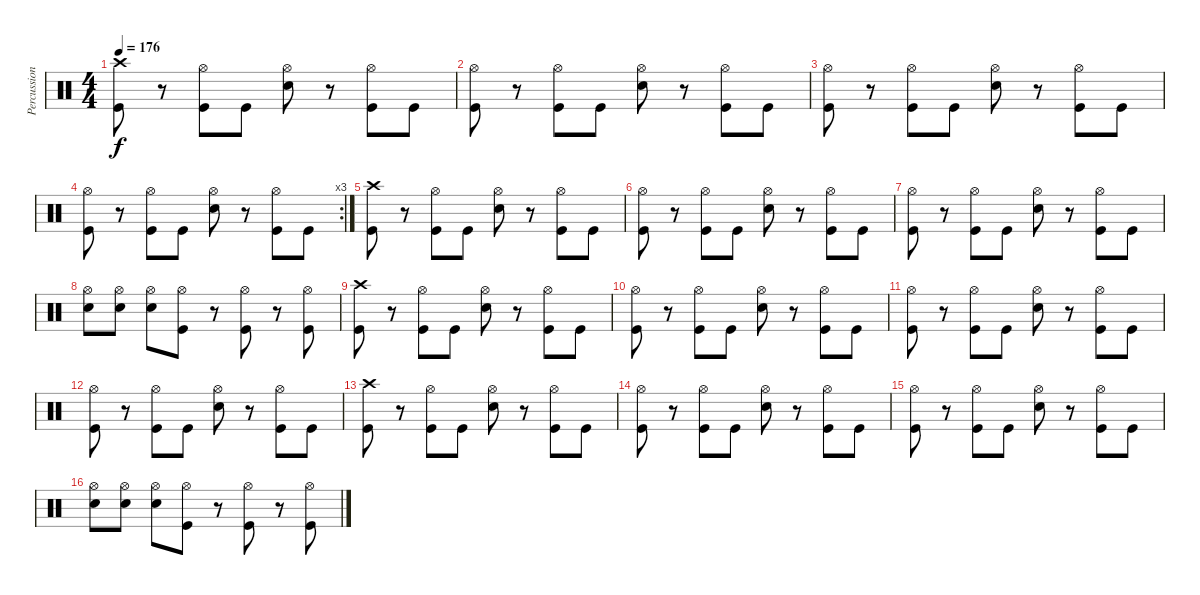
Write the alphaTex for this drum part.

\track ("Percussion" "Percussion") {instrument percussion}
\staff {score}
\articulation defaults
\ts (4 4)
\tempo 176
\clef neutral
\ks c
("Crash high (hit)" "Kick (hit)").8{dy f} r.8 ("Hi-Hat (open)" "Kick (hit)").8 "Kick (hit)".8 ("Hi-Hat (open)" "Snare (hit) 2").8 r.8 ("Hi-Hat (open)" "Kick (hit)").8 "Kick (hit)".8 |
("Hi-Hat (open)" "Kick (hit)").8 r.8 ("Hi-Hat (open)" "Kick (hit)").8 "Kick (hit)".8 ("Hi-Hat (open)" "Snare (hit) 2").8 r.8 ("Hi-Hat (open)" "Kick (hit)").8 "Kick (hit)".8 |
("Hi-Hat (open)" "Kick (hit)").8 r.8 ("Hi-Hat (open)" "Kick (hit)").8 "Kick (hit)".8 ("Hi-Hat (open)" "Snare (hit) 2").8 r.8 ("Hi-Hat (open)" "Kick (hit)").8 "Kick (hit)".8 |
\rc 3
("Hi-Hat (open)" "Kick (hit)").8 r.8 ("Hi-Hat (open)" "Kick (hit)").8 "Kick (hit)".8 ("Hi-Hat (open)" "Snare (hit) 2").8 r.8 ("Hi-Hat (open)" "Kick (hit)").8 "Kick (hit)".8 |
("Crash high (hit)" "Kick (hit)").8 r.8 ("Hi-Hat (open)" "Kick (hit)").8 "Kick (hit)".8 ("Hi-Hat (open)" "Snare (hit) 2").8 r.8 ("Hi-Hat (open)" "Kick (hit)").8 "Kick (hit)".8 |
("Hi-Hat (open)" "Kick (hit)").8 r.8 ("Hi-Hat (open)" "Kick (hit)").8 "Kick (hit)".8 ("Hi-Hat (open)" "Snare (hit) 2").8 r.8 ("Hi-Hat (open)" "Kick (hit)").8 "Kick (hit)".8 |
("Hi-Hat (open)" "Kick (hit)").8 r.8 ("Hi-Hat (open)" "Kick (hit)").8 "Kick (hit)".8 ("Hi-Hat (open)" "Snare (hit) 2").8 r.8 ("Hi-Hat (open)" "Kick (hit)").8 "Kick (hit)".8 |
("Hi-Hat (open)" "Snare (hit) 2").8 ("Hi-Hat (open)" "Snare (hit) 2").8 ("Hi-Hat (open)" "Snare (hit) 2").8 ("Hi-Hat (open)" "Kick (hit)").8 r.8 ("Hi-Hat (open)" "Kick (hit)").8 r.8 ("Hi-Hat (open)" "Kick (hit)").8 |
("Crash high (hit)" "Kick (hit)").8 r.8 ("Hi-Hat (open)" "Kick (hit)").8 "Kick (hit)".8 ("Hi-Hat (open)" "Snare (hit) 2").8 r.8 ("Hi-Hat (open)" "Kick (hit)").8 "Kick (hit)".8 |
("Hi-Hat (open)" "Kick (hit)").8 r.8 ("Hi-Hat (open)" "Kick (hit)").8 "Kick (hit)".8 ("Hi-Hat (open)" "Snare (hit) 2").8 r.8 ("Hi-Hat (open)" "Kick (hit)").8 "Kick (hit)".8 |
("Hi-Hat (open)" "Kick (hit)").8 r.8 ("Hi-Hat (open)" "Kick (hit)").8 "Kick (hit)".8 ("Hi-Hat (open)" "Snare (hit) 2").8 r.8 ("Hi-Hat (open)" "Kick (hit)").8 "Kick (hit)".8 |
("Hi-Hat (open)" "Kick (hit)").8 r.8 ("Hi-Hat (open)" "Kick (hit)").8 "Kick (hit)".8 ("Hi-Hat (open)" "Snare (hit) 2").8 r.8 ("Hi-Hat (open)" "Kick (hit)").8 "Kick (hit)".8 |
("Crash high (hit)" "Kick (hit)").8 r.8 ("Hi-Hat (open)" "Kick (hit)").8 "Kick (hit)".8 ("Hi-Hat (open)" "Snare (hit) 2").8 r.8 ("Hi-Hat (open)" "Kick (hit)").8 "Kick (hit)".8 |
("Hi-Hat (open)" "Kick (hit)").8 r.8 ("Hi-Hat (open)" "Kick (hit)").8 "Kick (hit)".8 ("Hi-Hat (open)" "Snare (hit) 2").8 r.8 ("Hi-Hat (open)" "Kick (hit)").8 "Kick (hit)".8 |
("Hi-Hat (open)" "Kick (hit)").8 r.8 ("Hi-Hat (open)" "Kick (hit)").8 "Kick (hit)".8 ("Hi-Hat (open)" "Snare (hit) 2").8 r.8 ("Hi-Hat (open)" "Kick (hit)").8 "Kick (hit)".8 |
("Hi-Hat (open)" "Snare (hit) 2").8 ("Hi-Hat (open)" "Snare (hit) 2").8 ("Hi-Hat (open)" "Snare (hit) 2").8 ("Hi-Hat (open)" "Kick (hit)").8 r.8 ("Hi-Hat (open)" "Kick (hit)").8 r.8 ("Hi-Hat (open)" "Kick (hit)").8
